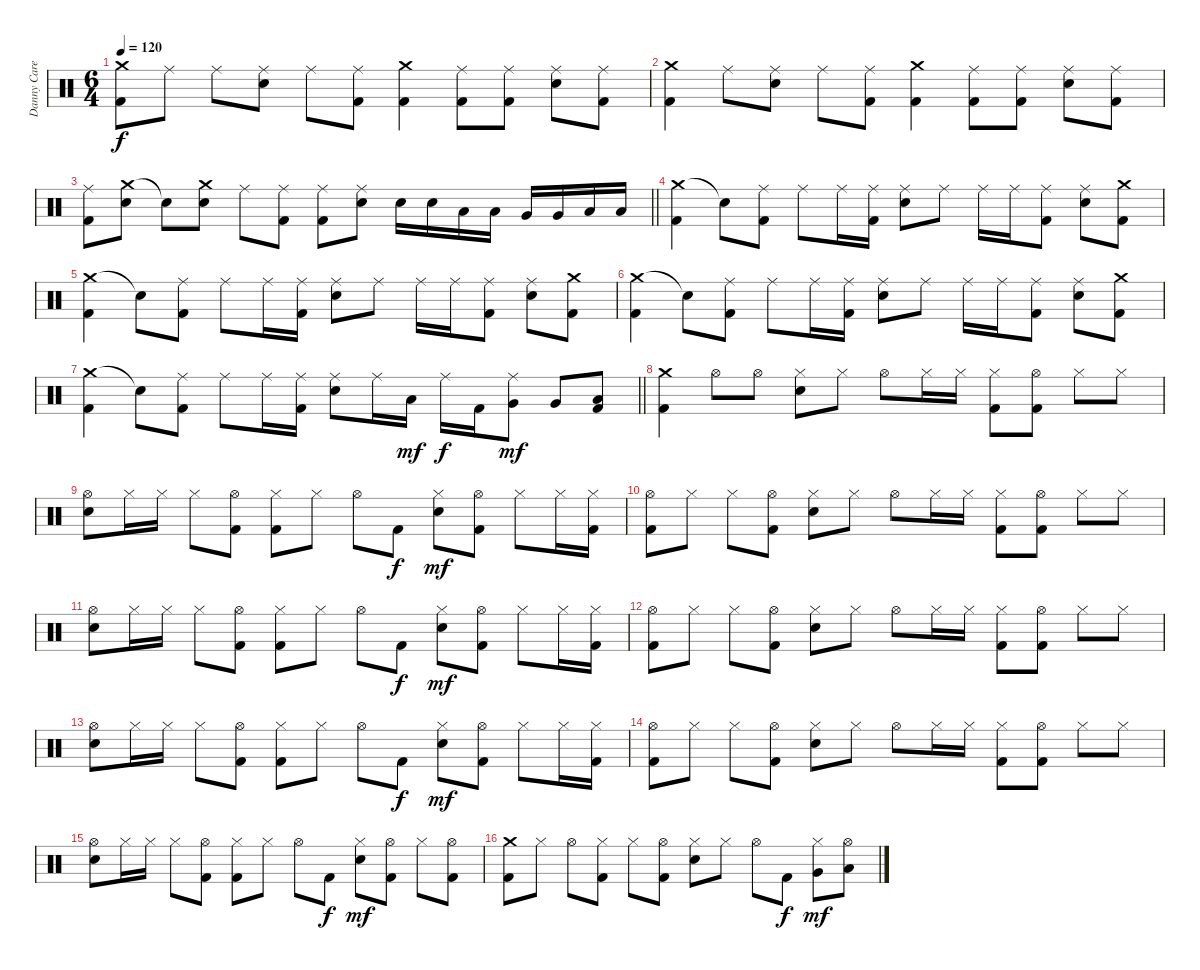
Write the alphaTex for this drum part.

\track ("Danny Carey" "Danny Care") {instrument percussion}
\staff {score}
\articulation defaults
\ts (6 4)
\tempo 120
\clef neutral
\ks c
("Crash medium (hit)" "Kick (hit) 2").8{dy f} "Ride (middle)".8 "Ride (middle)".8 ("Ride (middle)" "Snare (hit) 2").8 "Ride (middle)".8 ("Ride (middle)" "Kick (hit) 2").8 ("Crash medium (hit)" "Kick (hit) 2").4 ("Ride (middle)" "Kick (hit) 2").8 ("Ride (middle)" "Kick (hit) 2").8 ("Ride (middle)" "Snare (hit) 2").8 ("Ride (middle)" "Kick (hit) 2").8 |
("Crash medium (hit)" "Kick (hit) 2").4 "Ride (middle)".8 ("Ride (middle)" "Snare (hit) 2").8 "Ride (middle)".8 ("Ride (middle)" "Kick (hit) 2").8 ("Crash medium (hit)" "Kick (hit) 2").4 ("Ride (middle)" "Kick (hit) 2").8 ("Ride (middle)" "Kick (hit) 2").8 ("Ride (middle)" "Snare (hit) 2").8 ("Ride (middle)" "Kick (hit) 2").8 |
\barLineRight lightlight
("Ride (middle)" "Kick (hit) 2").8 ("Crash medium (hit)" "Snare (hit) 2").8 "Snare (hit)"{t}.8 ("Crash medium (hit)" "Snare (hit) 2").8 "Ride (middle)".8 ("Ride (middle)" "Kick (hit) 2").8 ("Ride (middle)" "Kick (hit) 2").8 ("Ride (middle)" "Snare (hit) 2").8 "Snare (hit) 2".16 "Snare (hit) 2".16 "Low Tom (hit)".16 "Low Tom (hit)".16 "Very Low Tom (hit)".16 "Very Low Tom (hit)".16 "Low Floor Tom (hit)".16 "Low Floor Tom (hit)".16 |
\section ("" "")
("Crash medium (hit)" "Kick (hit) 2").4 "Snare (hit)"{t}.8 ("Ride (middle)" "Kick (hit) 2").8 "Ride (middle)".8 "Ride (middle)".16 ("Ride (middle)" "Kick (hit) 2").16 ("Ride (middle)" "Snare (hit) 2").8 "Ride (middle)".8 "Ride (middle)".16 "Ride (middle)".16 ("Ride (middle)" "Kick (hit) 2").8 ("Ride (middle)" "Snare (hit) 2").8 ("Crash medium (hit)" "Kick (hit) 2").8 |
("Crash medium (hit)" "Kick (hit) 2").4 "Snare (hit)"{t}.8 ("Ride (middle)" "Kick (hit) 2").8 "Ride (middle)".8 "Ride (middle)".16 ("Ride (middle)" "Kick (hit) 2").16 ("Ride (middle)" "Snare (hit) 2").8 "Ride (middle)".8 "Ride (middle)".16 "Ride (middle)".16 ("Ride (middle)" "Kick (hit) 2").8 ("Ride (middle)" "Snare (hit) 2").8 ("Crash medium (hit)" "Kick (hit) 2").8 |
("Crash medium (hit)" "Kick (hit) 2").4 "Snare (hit)"{t}.8 ("Ride (middle)" "Kick (hit) 2").8 "Ride (middle)".8 "Ride (middle)".16 ("Ride (middle)" "Kick (hit) 2").16 ("Ride (middle)" "Snare (hit) 2").8 "Ride (middle)".8 "Ride (middle)".16 "Ride (middle)".16 ("Ride (middle)" "Kick (hit) 2").8 ("Ride (middle)" "Snare (hit) 2").8 ("Crash medium (hit)" "Kick (hit) 2").8 |
\barLineRight lightlight
("Crash medium (hit)" "Kick (hit) 2").4 "Snare (hit)"{t}.8 ("Ride (middle)" "Kick (hit) 2").8 "Ride (middle)".8 "Ride (middle)".16 ("Ride (middle)" "Kick (hit) 2").16 ("Ride (middle)" "Snare (hit) 2").8 "Ride (middle)".16 "Low Tom (hit)".16{dy mf} "Ride (middle)".16{dy f} "Kick (hit) 2".16 ("Ride (middle)" "Very Low Tom (hit)").8{dy mf} "Very Low Tom (hit)".8 ("Low Floor Tom (hit)" "Kick (hit) 2").8 |
\section ("" "")
("Crash medium (hit)" "Kick (hit) 2").4 "Hi-Hat (open)".8 "Hi-Hat (open)".8 ("Hi-Hat (closed)" "Snare (hit) 2").8 "Hi-Hat (closed)".8 "Hi-Hat (open)".8 "Hi-Hat (closed)".16 "Hi-Hat (closed)".16 ("Hi-Hat (closed)" "Kick (hit) 2").8 ("Hi-Hat (open)" "Kick (hit) 2").8 "Hi-Hat (closed)".8 "Hi-Hat (closed)".8 |
("Hi-Hat (open)" "Snare (hit) 2").8 "Hi-Hat (closed)".16 "Hi-Hat (closed)".16 "Hi-Hat (closed)".8 ("Hi-Hat (open)" "Kick (hit) 2").8 ("Hi-Hat (closed)" "Kick (hit) 2").8 "Hi-Hat (closed)".8 "Hi-Hat (open)".8 "Kick (hit) 2".8{dy f} ("Hi-Hat (closed)" "Snare (hit) 2").8{dy mf} ("Hi-Hat (open)" "Kick (hit) 2").8 "Hi-Hat (closed)".8 "Hi-Hat (closed)".16 ("Hi-Hat (closed)" "Kick (hit) 2").16 |
("Hi-Hat (open)" "Kick (hit) 2").8 "Hi-Hat (closed)".8 "Hi-Hat (closed)".8 ("Hi-Hat (open)" "Kick (hit) 2").8 ("Hi-Hat (closed)" "Snare (hit) 2").8 "Hi-Hat (closed)".8 "Hi-Hat (open)".8 "Hi-Hat (closed)".16 "Hi-Hat (closed)".16 ("Hi-Hat (closed)" "Kick (hit) 2").8 ("Hi-Hat (open)" "Kick (hit) 2").8 "Hi-Hat (closed)".8 "Hi-Hat (closed)".8 |
("Hi-Hat (open)" "Snare (hit) 2").8 "Hi-Hat (closed)".16 "Hi-Hat (closed)".16 "Hi-Hat (closed)".8 ("Hi-Hat (open)" "Kick (hit) 2").8 ("Hi-Hat (closed)" "Kick (hit) 2").8 "Hi-Hat (closed)".8 "Hi-Hat (open)".8 "Kick (hit) 2".8{dy f} ("Hi-Hat (closed)" "Snare (hit) 2").8{dy mf} ("Hi-Hat (open)" "Kick (hit) 2").8 "Hi-Hat (closed)".8 "Hi-Hat (closed)".16 ("Hi-Hat (closed)" "Kick (hit) 2").16 |
("Hi-Hat (open)" "Kick (hit) 2").8 "Hi-Hat (closed)".8 "Hi-Hat (closed)".8 ("Hi-Hat (open)" "Kick (hit) 2").8 ("Hi-Hat (closed)" "Snare (hit) 2").8 "Hi-Hat (closed)".8 "Hi-Hat (open)".8 "Hi-Hat (closed)".16 "Hi-Hat (closed)".16 ("Hi-Hat (closed)" "Kick (hit) 2").8 ("Hi-Hat (open)" "Kick (hit) 2").8 "Hi-Hat (closed)".8 "Hi-Hat (closed)".8 |
("Hi-Hat (open)" "Snare (hit) 2").8 "Hi-Hat (closed)".16 "Hi-Hat (closed)".16 "Hi-Hat (closed)".8 ("Hi-Hat (open)" "Kick (hit) 2").8 ("Hi-Hat (closed)" "Kick (hit) 2").8 "Hi-Hat (closed)".8 "Hi-Hat (open)".8 "Kick (hit) 2".8{dy f} ("Hi-Hat (closed)" "Snare (hit) 2").8{dy mf} ("Hi-Hat (open)" "Kick (hit) 2").8 "Hi-Hat (closed)".8 "Hi-Hat (closed)".16 ("Hi-Hat (closed)" "Kick (hit) 2").16 |
("Hi-Hat (open)" "Kick (hit) 2").8 "Hi-Hat (closed)".8 "Hi-Hat (closed)".8 ("Hi-Hat (open)" "Kick (hit) 2").8 ("Hi-Hat (closed)" "Snare (hit) 2").8 "Hi-Hat (closed)".8 "Hi-Hat (open)".8 "Hi-Hat (closed)".16 "Hi-Hat (closed)".16 ("Hi-Hat (closed)" "Kick (hit) 2").8 ("Hi-Hat (open)" "Kick (hit) 2").8 "Hi-Hat (closed)".8 "Hi-Hat (closed)".8 |
("Hi-Hat (open)" "Snare (hit) 2").8 "Hi-Hat (closed)".16 "Hi-Hat (closed)".16 "Hi-Hat (closed)".8 ("Hi-Hat (open)" "Kick (hit) 2").8 ("Hi-Hat (closed)" "Kick (hit) 2").8 "Hi-Hat (closed)".8 "Hi-Hat (open)".8 "Kick (hit) 2".8{dy f} ("Hi-Hat (closed)" "Snare (hit) 2").8{dy mf} ("Hi-Hat (open)" "Kick (hit) 2").8 "Hi-Hat (closed)".8 ("Hi-Hat (open)" "Kick (hit) 2").8 |
("Crash medium (hit)" "Kick (hit) 2").8 "Hi-Hat (closed)".8 "Hi-Hat (open)".8 ("Hi-Hat (closed)" "Kick (hit) 2").8 "Hi-Hat (closed)".8 ("Hi-Hat (open)" "Kick (hit) 2").8 ("Hi-Hat (closed)" "Snare (hit) 2").8 "Hi-Hat (closed)".8 "Hi-Hat (open)".8 "Kick (hit) 2".8{dy f} ("Hi-Hat (closed)" "Very Low Tom (hit)").8{dy mf} ("Hi-Hat (open)" "Low Floor Tom (hit)").8
